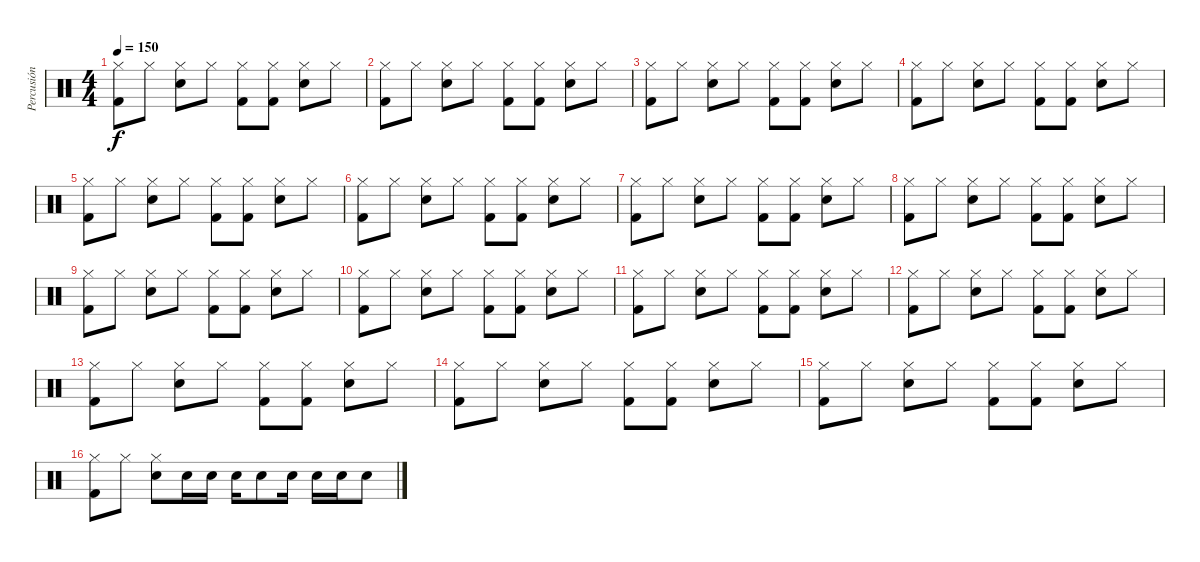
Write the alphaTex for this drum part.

\track ("Percusión" "Percusión") {instrument percussion}
\staff {score}
\articulation defaults
\ts (4 4)
\tempo 150
\clef neutral
\ks c
("Hi-Hat (closed)" "Kick (hit) 2").8{dy f} "Hi-Hat (closed)".8 ("Hi-Hat (closed)" "Snare (hit) 2").8 "Hi-Hat (closed)".8 ("Hi-Hat (closed)" "Kick (hit) 2").8 ("Hi-Hat (closed)" "Kick (hit) 2").8 ("Hi-Hat (closed)" "Snare (hit) 2").8 "Hi-Hat (closed)".8 |
("Hi-Hat (closed)" "Kick (hit) 2").8 "Hi-Hat (closed)".8 ("Hi-Hat (closed)" "Snare (hit) 2").8 "Hi-Hat (closed)".8 ("Hi-Hat (closed)" "Kick (hit) 2").8 ("Hi-Hat (closed)" "Kick (hit) 2").8 ("Hi-Hat (closed)" "Snare (hit) 2").8 "Hi-Hat (closed)".8 |
("Hi-Hat (closed)" "Kick (hit) 2").8 "Hi-Hat (closed)".8 ("Hi-Hat (closed)" "Snare (hit) 2").8 "Hi-Hat (closed)".8 ("Hi-Hat (closed)" "Kick (hit) 2").8 ("Hi-Hat (closed)" "Kick (hit) 2").8 ("Hi-Hat (closed)" "Snare (hit) 2").8 "Hi-Hat (closed)".8 |
("Hi-Hat (closed)" "Kick (hit) 2").8 "Hi-Hat (closed)".8 ("Hi-Hat (closed)" "Snare (hit) 2").8 "Hi-Hat (closed)".8 ("Hi-Hat (closed)" "Kick (hit) 2").8 ("Hi-Hat (closed)" "Kick (hit) 2").8 ("Hi-Hat (closed)" "Snare (hit) 2").8 "Hi-Hat (closed)".8 |
("Hi-Hat (closed)" "Kick (hit) 2").8 "Hi-Hat (closed)".8 ("Hi-Hat (closed)" "Snare (hit) 2").8 "Hi-Hat (closed)".8 ("Hi-Hat (closed)" "Kick (hit) 2").8 ("Hi-Hat (closed)" "Kick (hit) 2").8 ("Hi-Hat (closed)" "Snare (hit) 2").8 "Hi-Hat (closed)".8 |
("Hi-Hat (closed)" "Kick (hit) 2").8 "Hi-Hat (closed)".8 ("Hi-Hat (closed)" "Snare (hit) 2").8 "Hi-Hat (closed)".8 ("Hi-Hat (closed)" "Kick (hit) 2").8 ("Hi-Hat (closed)" "Kick (hit) 2").8 ("Hi-Hat (closed)" "Snare (hit) 2").8 "Hi-Hat (closed)".8 |
("Hi-Hat (closed)" "Kick (hit) 2").8 "Hi-Hat (closed)".8 ("Hi-Hat (closed)" "Snare (hit) 2").8 "Hi-Hat (closed)".8 ("Hi-Hat (closed)" "Kick (hit) 2").8 ("Hi-Hat (closed)" "Kick (hit) 2").8 ("Hi-Hat (closed)" "Snare (hit) 2").8 "Hi-Hat (closed)".8 |
("Hi-Hat (closed)" "Kick (hit) 2").8 "Hi-Hat (closed)".8 ("Hi-Hat (closed)" "Snare (hit) 2").8 "Hi-Hat (closed)".8 ("Hi-Hat (closed)" "Kick (hit) 2").8 ("Hi-Hat (closed)" "Kick (hit) 2").8 ("Hi-Hat (closed)" "Snare (hit) 2").8 "Hi-Hat (closed)".8 |
("Hi-Hat (closed)" "Kick (hit) 2").8 "Hi-Hat (closed)".8 ("Hi-Hat (closed)" "Snare (hit) 2").8 "Hi-Hat (closed)".8 ("Hi-Hat (closed)" "Kick (hit) 2").8 ("Hi-Hat (closed)" "Kick (hit) 2").8 ("Hi-Hat (closed)" "Snare (hit) 2").8 "Hi-Hat (closed)".8 |
("Hi-Hat (closed)" "Kick (hit) 2").8 "Hi-Hat (closed)".8 ("Hi-Hat (closed)" "Snare (hit) 2").8 "Hi-Hat (closed)".8 ("Hi-Hat (closed)" "Kick (hit) 2").8 ("Hi-Hat (closed)" "Kick (hit) 2").8 ("Hi-Hat (closed)" "Snare (hit) 2").8 "Hi-Hat (closed)".8 |
("Hi-Hat (closed)" "Kick (hit) 2").8 "Hi-Hat (closed)".8 ("Hi-Hat (closed)" "Snare (hit) 2").8 "Hi-Hat (closed)".8 ("Hi-Hat (closed)" "Kick (hit) 2").8 ("Hi-Hat (closed)" "Kick (hit) 2").8 ("Hi-Hat (closed)" "Snare (hit) 2").8 "Hi-Hat (closed)".8 |
("Hi-Hat (closed)" "Kick (hit) 2").8 "Hi-Hat (closed)".8 ("Hi-Hat (closed)" "Snare (hit) 2").8 "Hi-Hat (closed)".8 ("Hi-Hat (closed)" "Kick (hit) 2").8 ("Hi-Hat (closed)" "Kick (hit) 2").8 ("Hi-Hat (closed)" "Snare (hit) 2").8 "Hi-Hat (closed)".8 |
("Hi-Hat (closed)" "Kick (hit) 2").8 "Hi-Hat (closed)".8 ("Hi-Hat (closed)" "Snare (hit) 2").8 "Hi-Hat (closed)".8 ("Hi-Hat (closed)" "Kick (hit) 2").8 ("Hi-Hat (closed)" "Kick (hit) 2").8 ("Hi-Hat (closed)" "Snare (hit) 2").8 "Hi-Hat (closed)".8 |
("Hi-Hat (closed)" "Kick (hit) 2").8 "Hi-Hat (closed)".8 ("Hi-Hat (closed)" "Snare (hit) 2").8 "Hi-Hat (closed)".8 ("Hi-Hat (closed)" "Kick (hit) 2").8 ("Hi-Hat (closed)" "Kick (hit) 2").8 ("Hi-Hat (closed)" "Snare (hit) 2").8 "Hi-Hat (closed)".8 |
("Hi-Hat (closed)" "Kick (hit) 2").8 "Hi-Hat (closed)".8 ("Hi-Hat (closed)" "Snare (hit) 2").8 "Hi-Hat (closed)".8 ("Hi-Hat (closed)" "Kick (hit) 2").8 ("Hi-Hat (closed)" "Kick (hit) 2").8 ("Hi-Hat (closed)" "Snare (hit) 2").8 "Hi-Hat (closed)".8 |
("Hi-Hat (closed)" "Kick (hit) 2").8 "Hi-Hat (closed)".8 ("Hi-Hat (closed)" "Snare (hit) 2").8 "Snare (hit) 2".16 "Snare (hit) 2".16 "Snare (hit) 2".16 "Snare (hit) 2".8 "Snare (hit) 2".16 "Snare (hit) 2".16 "Snare (hit) 2".16 "Snare (hit) 2".8
